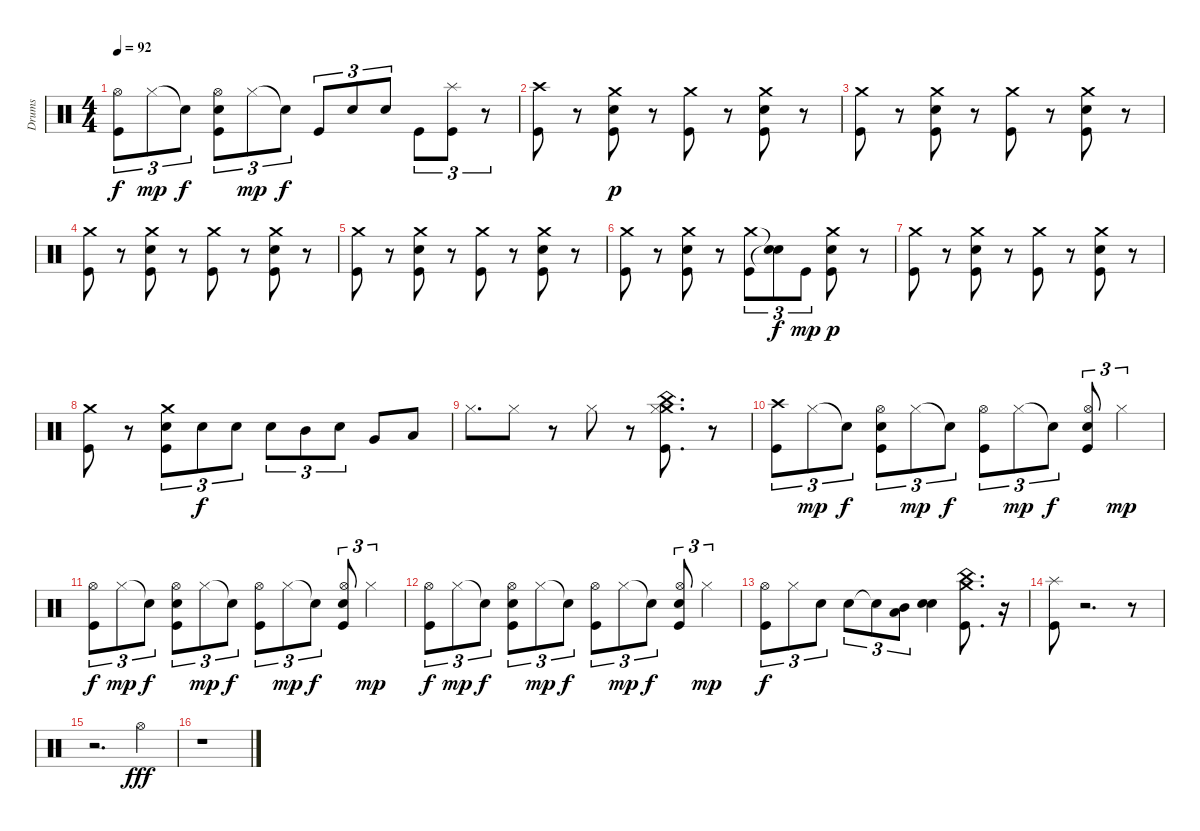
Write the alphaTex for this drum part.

\track ("Drums" "Drums") {instrument percussion}
\staff {score}
\articulation defaults
\ts (4 4)
\tempo 92
\clef neutral
\ks c
("Kick (hit)" "Hi-Hat (open)").8{tu (3 2) dy f} "Hi-Hat (closed)".8{tu (3 2) dy mp} "Snare (hit)"{t}.8{tu (3 2) dy f} ("Kick (hit)" "Hi-Hat (open)" "Snare (hit) 2").8{tu (3 2)} "Hi-Hat (closed)".8{tu (3 2) dy mp} "Snare (hit)"{t}.8{tu (3 2) dy f} "Kick (hit)".8{tu (3 2)} "Snare (hit) 2".8{tu (3 2)} "Snare (hit) 2".8{tu (3 2)} "Kick (hit)".8{tu (3 2)} ("Splash (hit)" "Kick (hit)").8{tu (3 2)} r.8{tu (3 2)} |
("Kick (hit)" "Crash high (hit)").8 r.8 ("Snare (hit) 2" "Kick (hit)" "Crash medium (hit)").8{dy p} r.8 ("Kick (hit)" "Crash medium (hit)").8 r.8 ("Snare (hit) 2" "Kick (hit)" "Crash medium (hit)").8 r.8 |
("Crash medium (hit)" "Kick (hit)").8 r.8 ("Snare (hit) 2" "Kick (hit)" "Crash medium (hit)").8 r.8 ("Kick (hit)" "Crash medium (hit)").8 r.8 ("Snare (hit) 2" "Kick (hit)" "Crash medium (hit)").8 r.8 |
("Crash medium (hit)" "Kick (hit)").8 r.8 ("Snare (hit) 2" "Kick (hit)" "Crash medium (hit)").8 r.8 ("Kick (hit)" "Crash medium (hit)").8 r.8 ("Snare (hit) 2" "Kick (hit)" "Crash medium (hit)").8 r.8 |
("Crash medium (hit)" "Kick (hit)").8 r.8 ("Snare (hit) 2" "Kick (hit)" "Crash medium (hit)").8 r.8 ("Kick (hit)" "Crash medium (hit)").8 r.8 ("Snare (hit) 2" "Kick (hit)" "Crash medium (hit)").8 r.8 |
("Crash medium (hit)" "Kick (hit)").8 r.8 ("Snare (hit) 2" "Kick (hit)" "Crash medium (hit)").8 r.8 ("Kick (hit)" "Crash medium (hit)").8{tu (3 2)} ("Snare (hit)"{t} "Snare (hit)"{t}).8{tu (3 2) dy f} "Kick (hit)".8{tu (3 2) dy mp} ("Snare (hit) 2" "Kick (hit)" "Crash medium (hit)").8{dy p} r.8 |
("Crash medium (hit)" "Kick (hit)").8 r.8 ("Snare (hit) 2" "Kick (hit)" "Crash medium (hit)").8 r.8 ("Kick (hit)" "Crash medium (hit)").8 r.8 ("Snare (hit) 2" "Kick (hit)" "Crash medium (hit)").8 r.8 |
("Kick (hit)" "Crash medium (hit)").8 r.8 ("Kick (hit)" "Snare (hit) 2" "Crash medium (hit)").8{tu (3 2)} "Electric Snare (hit)".8{tu (3 2) dy f} "Electric Snare (hit)".8{tu (3 2)} "Electric Snare (hit)".8{tu (3 2)} "Mid Tom (hit)".8{tu (3 2)} "Electric Snare (hit)".8{tu (3 2)} "Very Low Tom (hit)".8 "Low Floor Tom (hit)".8 |
"Hi-Hat (closed)".8{d} "Hi-Hat (closed)".8 r.8 "Hi-Hat (closed)".8 r.8 ("Crash medium (hit)" "Kick (hit)" "China (hit)" "Hi-Hat (closed)").8{d} r.8 |
("Kick (hit)" "Crash high (hit)").8{tu (3 2)} "Hi-Hat (closed)".8{tu (3 2) dy mp} "Snare (hit)"{t}.8{tu (3 2) dy f} ("Kick (hit)" "Hi-Hat (open)" "Snare (hit) 2").8{tu (3 2)} "Hi-Hat (closed)".8{tu (3 2) dy mp} "Snare (hit)"{t}.8{tu (3 2) dy f} ("Hi-Hat (open)" "Kick (hit)").8{tu (3 2)} "Hi-Hat (closed)".8{tu (3 2) dy mp} "Snare (hit)"{t}.8{tu (3 2) dy f} ("Kick (hit)" "Snare (hit) 2" "Hi-Hat (open)").8{tu (3 2)} "Hi-Hat (closed)".4{tu (3 2) dy mp} |
("Kick (hit)" "Hi-Hat (open)").8{tu (3 2) dy f} "Hi-Hat (closed)".8{tu (3 2) dy mp} "Snare (hit)"{t}.8{tu (3 2) dy f} ("Kick (hit)" "Hi-Hat (open)" "Snare (hit) 2").8{tu (3 2)} "Hi-Hat (closed)".8{tu (3 2) dy mp} "Snare (hit)"{t}.8{tu (3 2) dy f} ("Hi-Hat (open)" "Kick (hit)").8{tu (3 2)} "Hi-Hat (closed)".8{tu (3 2) dy mp} "Snare (hit)"{t}.8{tu (3 2) dy f} ("Kick (hit)" "Snare (hit) 2" "Hi-Hat (open)").8{tu (3 2)} "Hi-Hat (closed)".4{tu (3 2) dy mp} |
("Kick (hit)" "Hi-Hat (open)").8{tu (3 2) dy f} "Hi-Hat (closed)".8{tu (3 2) dy mp} "Snare (hit)"{t}.8{tu (3 2) dy f} ("Kick (hit)" "Hi-Hat (open)" "Snare (hit) 2").8{tu (3 2)} "Hi-Hat (closed)".8{tu (3 2) dy mp} "Snare (hit)"{t}.8{tu (3 2) dy f} ("Hi-Hat (open)" "Kick (hit)").8{tu (3 2)} "Hi-Hat (closed)".8{tu (3 2) dy mp} "Snare (hit)"{t}.8{tu (3 2) dy f} ("Kick (hit)" "Snare (hit) 2" "Hi-Hat (open)").8{tu (3 2)} "Hi-Hat (closed)".4{tu (3 2) dy mp} |
("Hi-Hat (open)" "Kick (hit)").8{tu (3 2) dy f} "Hi-Hat (closed)".8{tu (3 2)} "Electric Snare (hit)".8{tu (3 2)} "Electric Snare (hit)".8{tu (3 2)} "Snare (hit)"{t}.8{tu (3 2)} ("Low Tom (hit)" "Mid Tom (hit)").8{tu (3 2)} ("Snare (hit) 2" "Electric Snare (hit)").4 ("Crash medium (hit)" "China (hit)" "Kick (hit)").8{d} r.16 |
("Splash (hit)" "Kick (hit)").8 r.2{d} r.8 |
r.2{d} "Hi-Hat (open)".4{dy fff} |
r.1
